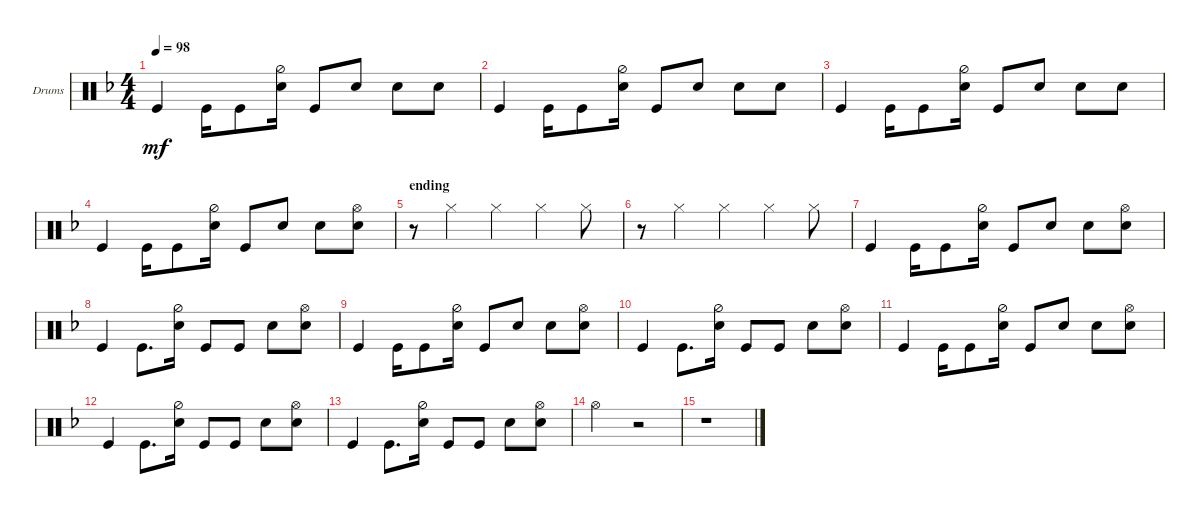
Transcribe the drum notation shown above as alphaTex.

\defaultSystemsLayout 4
\bracketExtendMode groupsimilarinstruments
\firstSystemTrackNameOrientation horizontal
\otherSystemsTrackNameOrientation horizontal
\track ("Drumkit" "Drums") {instrument percussion}
\staff {score}
\articulation defaults
\ts (4 4)
\tempo 98
\clef neutral
\scale
0.333333
\ks dminor "Kick (hit)".4{dy mf} "Kick (hit)".16 "Kick (hit)".8
("Snare (hit) 2" "Hi-Hat (half)").16 "Kick (hit)".8 "Snare (hit) 2".8 "Snare (hit) 2".8 "Snare (hit) 2".8 |
\scale
0.333333 "Kick (hit)".4 "Kick (hit)".16 "Kick (hit)".8 ("Snare (hit) 2" "Hi-Hat (half)").16 "Kick (hit)".8 "Snare (hit) 2".8 "Snare (hit) 2".8 "Snare (hit) 2".8 |
\scale
0.333333 "Kick (hit)".4 "Kick (hit)".16 "Kick (hit)".8 ("Snare (hit) 2" "Hi-Hat (half)").16 "Kick (hit)".8 "Snare (hit) 2".8 "Snare (hit) 2".8 "Snare (hit) 2".8 |
\scale
0.333333 "Kick (hit)".4 "Kick (hit)".16 "Kick (hit)".8 ("Snare (hit) 2" "Hi-Hat (half)").16 "Kick (hit)".8 "Snare (hit) 2".8 "Snare (hit) 2".8 ("Snare (hit) 2" "Hi-Hat (open)").8 |
\section ("" "ending")
\scale
0.333333 r.8 "Hi-Hat (closed)".4 "Hi-Hat (closed)".4 "Hi-Hat (closed)".4 "Hi-Hat (closed)".8 |
\scale
0.333333 r.8 "Hi-Hat (closed)".4 "Hi-Hat (closed)".4 "Hi-Hat (closed)".4 "Hi-Hat (closed)".8 |
\scale
0.333333 "Kick (hit)".4 "Kick (hit)".16 "Kick (hit)".8 ("Snare (hit) 2" "Hi-Hat (half)").16 "Kick (hit)".8 "Snare (hit) 2".8 "Snare (hit) 2".8 ("Snare (hit) 2" "Hi-Hat (open)").8 |
\scale
0.333333 "Kick (hit)".4 "Kick (hit)".8{d} ("Snare (hit) 2" "Hi-Hat (half)").16 "Kick (hit)".8 "Kick (hit)".8 "Snare (hit) 2".8 ("Snare (hit) 2" "Hi-Hat (open)").8 |
\scale
0.333333 "Kick (hit)".4 "Kick (hit)".16 "Kick (hit)".8 ("Snare (hit) 2" "Hi-Hat (half)").16 "Kick (hit)".8 "Snare (hit) 2".8 "Snare (hit) 2".8 ("Snare (hit) 2" "Hi-Hat (open)").8 |
\scale
0.333333 "Kick (hit)".4 "Kick (hit)".8{d} ("Snare (hit) 2" "Hi-Hat (half)").16 "Kick (hit)".8 "Kick (hit)".8 "Snare (hit) 2".8 ("Snare (hit) 2" "Hi-Hat (open)").8 |
\scale
0.333333 "Kick (hit)".4 "Kick (hit)".16 "Kick (hit)".8 ("Snare (hit) 2" "Hi-Hat (half)").16 "Kick (hit)".8 "Snare (hit) 2".8 "Snare (hit) 2".8 ("Snare (hit) 2" "Hi-Hat (open)").8 |
\scale
0.333333 "Kick (hit)".4 "Kick (hit)".8{d} ("Snare (hit) 2" "Hi-Hat (half)").16 "Kick (hit)".8 "Kick (hit)".8 "Snare (hit) 2".8 ("Snare (hit) 2" "Hi-Hat (open)").8 |
\scale
0.333333 "Kick (hit)".4 "Kick (hit)".8{d} ("Snare (hit) 2" "Hi-Hat (half)").16 "Kick (hit)".8 "Kick (hit)".8 "Snare (hit) 2".8 ("Snare (hit) 2" "Hi-Hat (open)").8 |
"Hi-Hat (open)".2 r.2 |
r.1
